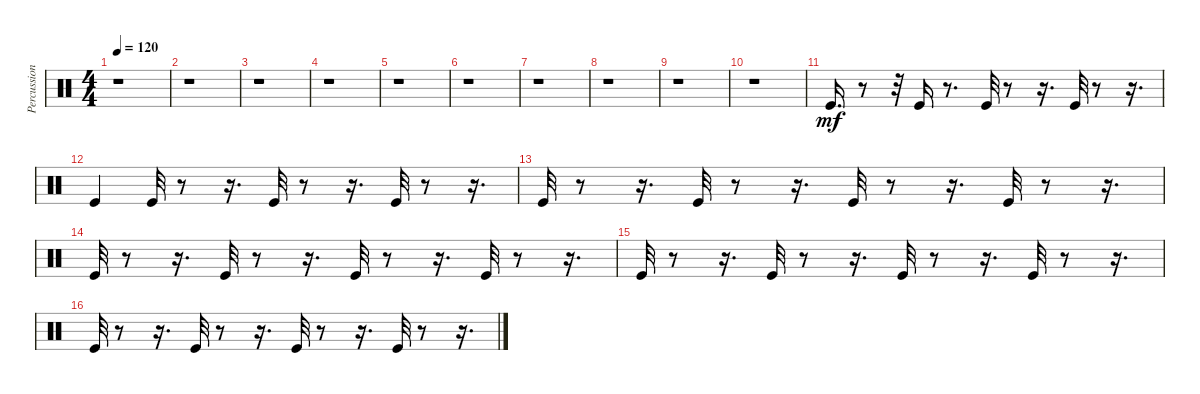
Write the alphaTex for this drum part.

\track ("Percussion" "Percussion") {instrument percussion}
\staff {score}
\articulation defaults
\ts (4 4)
\tempo 120
\clef neutral
\ks c
r.1{dy mf} |
r.1 |
r.1 |
r.1 |
r.1 |
r.1 |
r.1 |
r.1 |
r.1 |
r.1 |
"Kick (hit)".16{d} r.8 r.32 "Kick (hit)".16 r.8{d} "Kick (hit)".32 r.8 r.16{d} "Kick (hit)".32 r.8 r.16{d} |
"Kick (hit)".4 "Kick (hit)".32 r.8 r.16{d} "Kick (hit)".32 r.8 r.16{d} "Kick (hit)".32 r.8 r.16{d} |
"Kick (hit)".32 r.8 r.16{d} "Kick (hit)".32 r.8 r.16{d} "Kick (hit)".32 r.8 r.16{d} "Kick (hit)".32 r.8 r.16{d} |
"Kick (hit)".32 r.8 r.16{d} "Kick (hit)".32 r.8 r.16{d} "Kick (hit)".32 r.8 r.16{d} "Kick (hit)".32 r.8 r.16{d} |
"Kick (hit)".32 r.8 r.16{d} "Kick (hit)".32 r.8 r.16{d} "Kick (hit)".32 r.8 r.16{d} "Kick (hit)".32 r.8 r.16{d} |
"Kick (hit)".32 r.8 r.16{d} "Kick (hit)".32 r.8 r.16{d} "Kick (hit)".32 r.8 r.16{d} "Kick (hit)".32 r.8 r.16{d}
